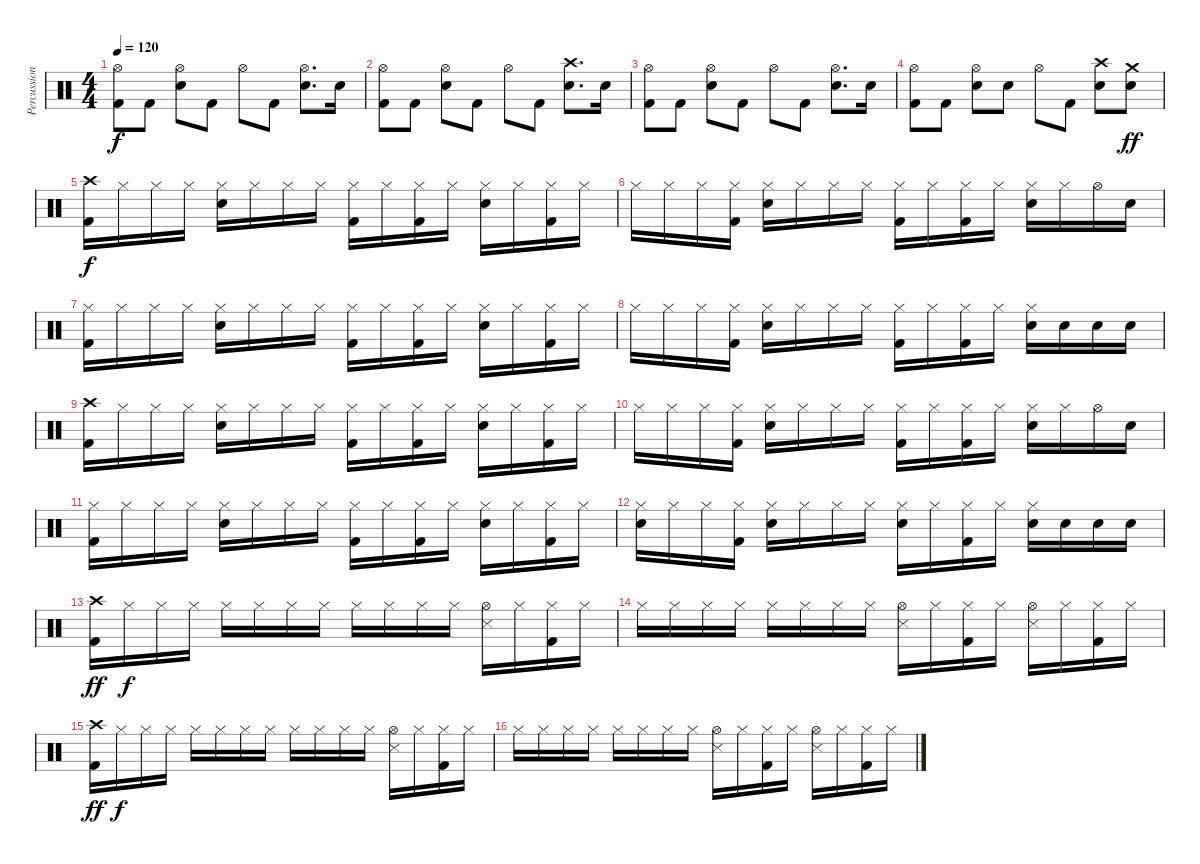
\track ("Percussion" "Percussion") {instrument percussion}
\staff {score}
\articulation defaults
\ts (4 4)
\tempo 120
\clef neutral
\ks c
("Hi-Hat (open)" "Kick (hit) 2").8{dy f} "Kick (hit) 2".8 ("Hi-Hat (open)" "Electric Snare (hit)").8 "Kick (hit) 2".8 "Hi-Hat (open)".8 "Kick (hit) 2".8 ("Hi-Hat (open)" "Electric Snare (hit)").8{d} "Electric Snare (hit)".16 |
("Hi-Hat (open)" "Kick (hit) 2").8 "Kick (hit) 2".8 ("Hi-Hat (open)" "Electric Snare (hit)").8 "Kick (hit) 2".8 "Hi-Hat (open)".8 "Kick (hit) 2".8 ("Crash high (hit)" "Electric Snare (hit)").8{d} "Electric Snare (hit)".16 |
("Hi-Hat (open)" "Kick (hit) 2").8 "Kick (hit) 2".8 ("Hi-Hat (open)" "Electric Snare (hit)").8 "Kick (hit) 2".8 "Hi-Hat (open)".8 "Kick (hit) 2".8 ("Hi-Hat (open)" "Electric Snare (hit)").8{d} "Electric Snare (hit)".16 |
("Hi-Hat (open)" "Kick (hit) 2").8 "Kick (hit) 2".8 ("Hi-Hat (open)" "Electric Snare (hit)").8 "Electric Snare (hit)".8 "Hi-Hat (open)".8 "Kick (hit) 2".8 ("Crash high (hit)" "Electric Snare (hit)").8 ("Crash medium (hit)" "Electric Snare (hit)").8{dy ff} |
("Crash high (hit)" "Kick (hit) 2").16{dy f} "Hi-Hat (closed)".16 "Hi-Hat (closed)".16 "Hi-Hat (closed)".16 ("Hi-Hat (closed)" "Electric Snare (hit)").16 "Hi-Hat (closed)".16 "Hi-Hat (closed)".16 "Hi-Hat (closed)".16 ("Hi-Hat (closed)" "Kick (hit) 2").16 "Hi-Hat (closed)".16 ("Hi-Hat (closed)" "Kick (hit) 2").16 "Hi-Hat (closed)".16 ("Hi-Hat (closed)" "Electric Snare (hit)").16 "Hi-Hat (closed)".16 ("Hi-Hat (closed)" "Kick (hit) 2").16 "Hi-Hat (closed)".16 |
"Hi-Hat (closed)".16 "Hi-Hat (closed)".16 "Hi-Hat (closed)".16 ("Hi-Hat (closed)" "Kick (hit) 2").16 ("Hi-Hat (closed)" "Electric Snare (hit)").16 "Hi-Hat (closed)".16 "Hi-Hat (closed)".16 "Hi-Hat (closed)".16 ("Hi-Hat (closed)" "Kick (hit) 2").16 "Hi-Hat (closed)".16 ("Hi-Hat (closed)" "Kick (hit) 2").16 "Hi-Hat (closed)".16 ("Hi-Hat (closed)" "Electric Snare (hit)").16 "Hi-Hat (closed)".16 "Hi-Hat (open)".16 "Electric Snare (hit)".16 |
("Hi-Hat (closed)" "Kick (hit) 2").16 "Hi-Hat (closed)".16 "Hi-Hat (closed)".16 "Hi-Hat (closed)".16 ("Hi-Hat (closed)" "Electric Snare (hit)").16 "Hi-Hat (closed)".16 "Hi-Hat (closed)".16 "Hi-Hat (closed)".16 ("Hi-Hat (closed)" "Kick (hit) 2").16 "Hi-Hat (closed)".16 ("Hi-Hat (closed)" "Kick (hit) 2").16 "Hi-Hat (closed)".16 ("Hi-Hat (closed)" "Electric Snare (hit)").16 "Hi-Hat (closed)".16 ("Hi-Hat (closed)" "Kick (hit) 2").16 "Hi-Hat (closed)".16 |
"Hi-Hat (closed)".16 "Hi-Hat (closed)".16 "Hi-Hat (closed)".16 ("Hi-Hat (closed)" "Kick (hit) 2").16 ("Hi-Hat (closed)" "Electric Snare (hit)").16 "Hi-Hat (closed)".16 "Hi-Hat (closed)".16 "Hi-Hat (closed)".16 ("Hi-Hat (closed)" "Kick (hit) 2").16 "Hi-Hat (closed)".16 ("Hi-Hat (closed)" "Kick (hit) 2").16 "Hi-Hat (closed)".16 ("Hi-Hat (closed)" "Electric Snare (hit)").16 "Electric Snare (hit)".16 "Electric Snare (hit)".16 "Electric Snare (hit)".16 |
("Crash high (hit)" "Kick (hit) 2").16 "Hi-Hat (closed)".16 "Hi-Hat (closed)".16 "Hi-Hat (closed)".16 ("Hi-Hat (closed)" "Electric Snare (hit)").16 "Hi-Hat (closed)".16 "Hi-Hat (closed)".16 "Hi-Hat (closed)".16 ("Hi-Hat (closed)" "Kick (hit) 2").16 "Hi-Hat (closed)".16 ("Hi-Hat (closed)" "Kick (hit) 2").16 "Hi-Hat (closed)".16 ("Hi-Hat (closed)" "Electric Snare (hit)").16 "Hi-Hat (closed)".16 ("Hi-Hat (closed)" "Kick (hit) 2").16 "Hi-Hat (closed)".16 |
"Hi-Hat (closed)".16 "Hi-Hat (closed)".16 "Hi-Hat (closed)".16 ("Hi-Hat (closed)" "Kick (hit) 2").16 ("Hi-Hat (closed)" "Electric Snare (hit)").16 "Hi-Hat (closed)".16 "Hi-Hat (closed)".16 "Hi-Hat (closed)".16 ("Hi-Hat (closed)" "Kick (hit) 2").16 "Hi-Hat (closed)".16 ("Hi-Hat (closed)" "Kick (hit) 2").16 "Hi-Hat (closed)".16 ("Hi-Hat (closed)" "Electric Snare (hit)").16 "Hi-Hat (closed)".16 "Hi-Hat (open)".16 "Electric Snare (hit)".16 |
("Hi-Hat (closed)" "Kick (hit) 2").16 "Hi-Hat (closed)".16 "Hi-Hat (closed)".16 "Hi-Hat (closed)".16 ("Hi-Hat (closed)" "Electric Snare (hit)").16 "Hi-Hat (closed)".16 "Hi-Hat (closed)".16 "Hi-Hat (closed)".16 ("Hi-Hat (closed)" "Kick (hit) 2").16 "Hi-Hat (closed)".16 ("Hi-Hat (closed)" "Kick (hit) 2").16 "Hi-Hat (closed)".16 ("Hi-Hat (closed)" "Electric Snare (hit)").16 "Hi-Hat (closed)".16 ("Hi-Hat (closed)" "Kick (hit) 2").16 "Hi-Hat (closed)".16 |
("Hi-Hat (closed)" "Electric Snare (hit)").16 "Hi-Hat (closed)".16 "Hi-Hat (closed)".16 ("Hi-Hat (closed)" "Kick (hit) 2").16 ("Hi-Hat (closed)" "Electric Snare (hit)").16 "Hi-Hat (closed)".16 "Hi-Hat (closed)".16 "Hi-Hat (closed)".16 ("Hi-Hat (closed)" "Electric Snare (hit)").16 "Hi-Hat (closed)".16 ("Hi-Hat (closed)" "Kick (hit) 2").16 "Hi-Hat (closed)".16 ("Hi-Hat (closed)" "Electric Snare (hit)").16 "Electric Snare (hit)".16 "Electric Snare (hit)".16 "Electric Snare (hit)".16 |
("Crash high (hit)" "Kick (hit) 2").16{dy ff} "Hi-Hat (closed)".16{dy f} "Hi-Hat (closed)".16 "Hi-Hat (closed)".16 "Hi-Hat (closed)".16 "Hi-Hat (closed)".16 "Hi-Hat (closed)".16 "Hi-Hat (closed)".16 "Hi-Hat (closed)".16 "Hi-Hat (closed)".16 "Hi-Hat (closed)".16 "Hi-Hat (closed)".16 ("Hi-Hat (open)" "Snare (side stick) 3").16 "Hi-Hat (closed)".16 ("Hi-Hat (closed)" "Kick (hit) 2").16 "Hi-Hat (closed)".16 |
"Hi-Hat (closed)".16 "Hi-Hat (closed)".16 "Hi-Hat (closed)".16 "Hi-Hat (closed)".16 "Hi-Hat (closed)".16 "Hi-Hat (closed)".16 "Hi-Hat (closed)".16 "Hi-Hat (closed)".16 ("Hi-Hat (open)" "Snare (side stick) 3").16 "Hi-Hat (closed)".16 ("Hi-Hat (closed)" "Kick (hit) 2").16 "Hi-Hat (closed)".16 ("Hi-Hat (open)" "Snare (side stick) 3").16 "Hi-Hat (closed)".16 ("Hi-Hat (closed)" "Kick (hit) 2").16 "Hi-Hat (closed)".16 |
("Crash high (hit)" "Kick (hit) 2").16{dy ff} "Hi-Hat (closed)".16{dy f} "Hi-Hat (closed)".16 "Hi-Hat (closed)".16 "Hi-Hat (closed)".16 "Hi-Hat (closed)".16 "Hi-Hat (closed)".16 "Hi-Hat (closed)".16 "Hi-Hat (closed)".16 "Hi-Hat (closed)".16 "Hi-Hat (closed)".16 "Hi-Hat (closed)".16 ("Hi-Hat (open)" "Snare (side stick) 3").16 "Hi-Hat (closed)".16 ("Hi-Hat (closed)" "Kick (hit) 2").16 "Hi-Hat (closed)".16 |
"Hi-Hat (closed)".16 "Hi-Hat (closed)".16 "Hi-Hat (closed)".16 "Hi-Hat (closed)".16 "Hi-Hat (closed)".16 "Hi-Hat (closed)".16 "Hi-Hat (closed)".16 "Hi-Hat (closed)".16 ("Hi-Hat (open)" "Snare (side stick) 3").16 "Hi-Hat (closed)".16 ("Hi-Hat (closed)" "Kick (hit) 2").16 "Hi-Hat (closed)".16 ("Hi-Hat (open)" "Snare (side stick) 3").16 "Hi-Hat (closed)".16 ("Hi-Hat (closed)" "Kick (hit) 2").16 "Hi-Hat (closed)".16
